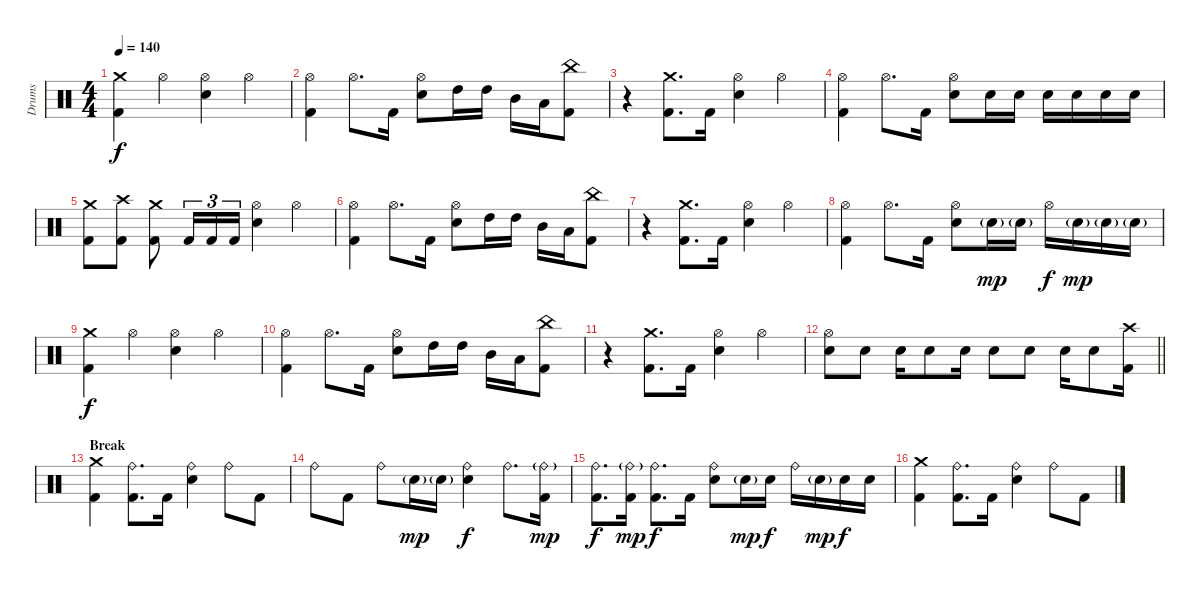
\track ("Drums" "Drums") {instrument percussion}
\staff {score}
\articulation defaults
\ts (4 4)
\tempo 140
\clef neutral
\ks c
("Crash medium (hit)" "Kick (hit) 2").4{dy f} "Hi-Hat (open)".4 ("Hi-Hat (open)" "Electric Snare (hit)").4 "Hi-Hat (open)".4 |
("Hi-Hat (open)" "Kick (hit) 2").4 "Hi-Hat (open)".8{d} "Kick (hit) 2".16 ("Hi-Hat (open)" "Electric Snare (hit)").8 "High Tom (hit)".16 "High Tom (hit)".16 "Mid Tom (hit)".16 "Low Tom (hit)".16 ("China (hit)" "Kick (hit) 2").8 |
r.4 ("Crash medium (hit)" "Kick (hit) 2").8{d} "Kick (hit) 2".16 ("Hi-Hat (open)" "Electric Snare (hit)").4 "Hi-Hat (open)".4 |
("Hi-Hat (open)" "Kick (hit) 2").4 "Hi-Hat (open)".8{d} "Kick (hit) 2".16 ("Hi-Hat (open)" "Electric Snare (hit)").8 "Electric Snare (hit)".16 "Electric Snare (hit)".16 "Electric Snare (hit)".16 "Electric Snare (hit)".16 "Electric Snare (hit)".16 "Electric Snare (hit)".16 |
("Crash medium (hit)" "Kick (hit) 2").8 ("Crash high (hit)" "Kick (hit) 2").8 ("Crash medium (hit)" "Kick (hit) 2").8 "Kick (hit) 2".16{tu (3 2)} "Kick (hit) 2".16{tu (3 2)} "Kick (hit) 2".16{tu (3 2)} ("Hi-Hat (open)" "Electric Snare (hit)").4 "Hi-Hat (open)".4 |
("Hi-Hat (open)" "Kick (hit) 2").4 "Hi-Hat (open)".8{d} "Kick (hit) 2".16 ("Hi-Hat (open)" "Electric Snare (hit)").8 "High Tom (hit)".16 "High Tom (hit)".16 "Mid Tom (hit)".16 "Low Tom (hit)".16 ("China (hit)" "Kick (hit) 2").8 |
r.4 ("Crash medium (hit)" "Kick (hit) 2").8{d} "Kick (hit) 2".16 ("Hi-Hat (open)" "Electric Snare (hit)").4 "Hi-Hat (open)".4 |
("Hi-Hat (open)" "Kick (hit) 2").4 "Hi-Hat (open)".8{d} "Kick (hit) 2".16 ("Hi-Hat (open)" "Electric Snare (hit)").8 "Electric Snare (hit)"{g}.16{dy mp} "Electric Snare (hit)"{g}.16 "Hi-Hat (open)".16{dy f} "Electric Snare (hit)"{g}.16{dy mp} "Electric Snare (hit)"{g}.16 "Electric Snare (hit)"{g}.16 |
("Crash medium (hit)" "Kick (hit) 2").4{dy f} "Hi-Hat (open)".4 ("Hi-Hat (open)" "Electric Snare (hit)").4 "Hi-Hat (open)".4 |
("Hi-Hat (open)" "Kick (hit) 2").4 "Hi-Hat (open)".8{d} "Kick (hit) 2".16 ("Hi-Hat (open)" "Electric Snare (hit)").8 "High Tom (hit)".16 "High Tom (hit)".16 "Mid Tom (hit)".16 "Low Tom (hit)".16 ("China (hit)" "Kick (hit) 2").8 |
r.4 ("Crash medium (hit)" "Kick (hit) 2").8{d} "Kick (hit) 2".16 ("Hi-Hat (open)" "Electric Snare (hit)").4 "Hi-Hat (open)".4 |
\barLineRight lightlight
("Hi-Hat (open)" "Electric Snare (hit)").8 "Electric Snare (hit)".8 "Electric Snare (hit)".16 "Electric Snare (hit)".8 "Electric Snare (hit)".16 "Electric Snare (hit)".8 "Electric Snare (hit)".8 "Electric Snare (hit)".16 "Electric Snare (hit)".8 ("Crash high (hit)" "Kick (hit) 2").16 |
\section ("" "Break")
("Crash medium (hit)" "Kick (hit) 2").4 ("Ride (bell)" "Kick (hit) 2").8{d} "Kick (hit) 2".16 ("Ride (bell)" "Electric Snare (hit)").4 "Ride (bell)".8 "Kick (hit) 2".8 |
"Ride (bell)".8 "Kick (hit) 2".8 "Ride (bell)".8 "Electric Snare (hit)"{g}.16{dy mp} "Electric Snare (hit)"{g}.16 ("Ride (bell)" "Electric Snare (hit)").4{dy f} "Ride (bell)".8{d} ("Ride (bell)"{g} "Kick (hit) 2").16{dy mp} |
("Ride (bell)" "Kick (hit) 2").8{d dy f} ("Ride (bell)"{g} "Kick (hit) 2").16{dy mp} ("Ride (bell)" "Kick (hit) 2").8{d dy f} "Kick (hit) 2".16 ("Ride (bell)" "Electric Snare (hit)").8 "Electric Snare (hit)"{g}.16{dy mp} "Electric Snare (hit)".16{dy f} "Ride (bell)".16 "Electric Snare (hit)"{g}.16{dy mp} "Electric Snare (hit)".16{dy f} "Electric Snare (hit)".16 |
("Crash medium (hit)" "Kick (hit) 2").4 ("Ride (bell)" "Kick (hit) 2").8{d} "Kick (hit) 2".16 ("Ride (bell)" "Electric Snare (hit)").4 "Ride (bell)".8 "Kick (hit) 2".8
